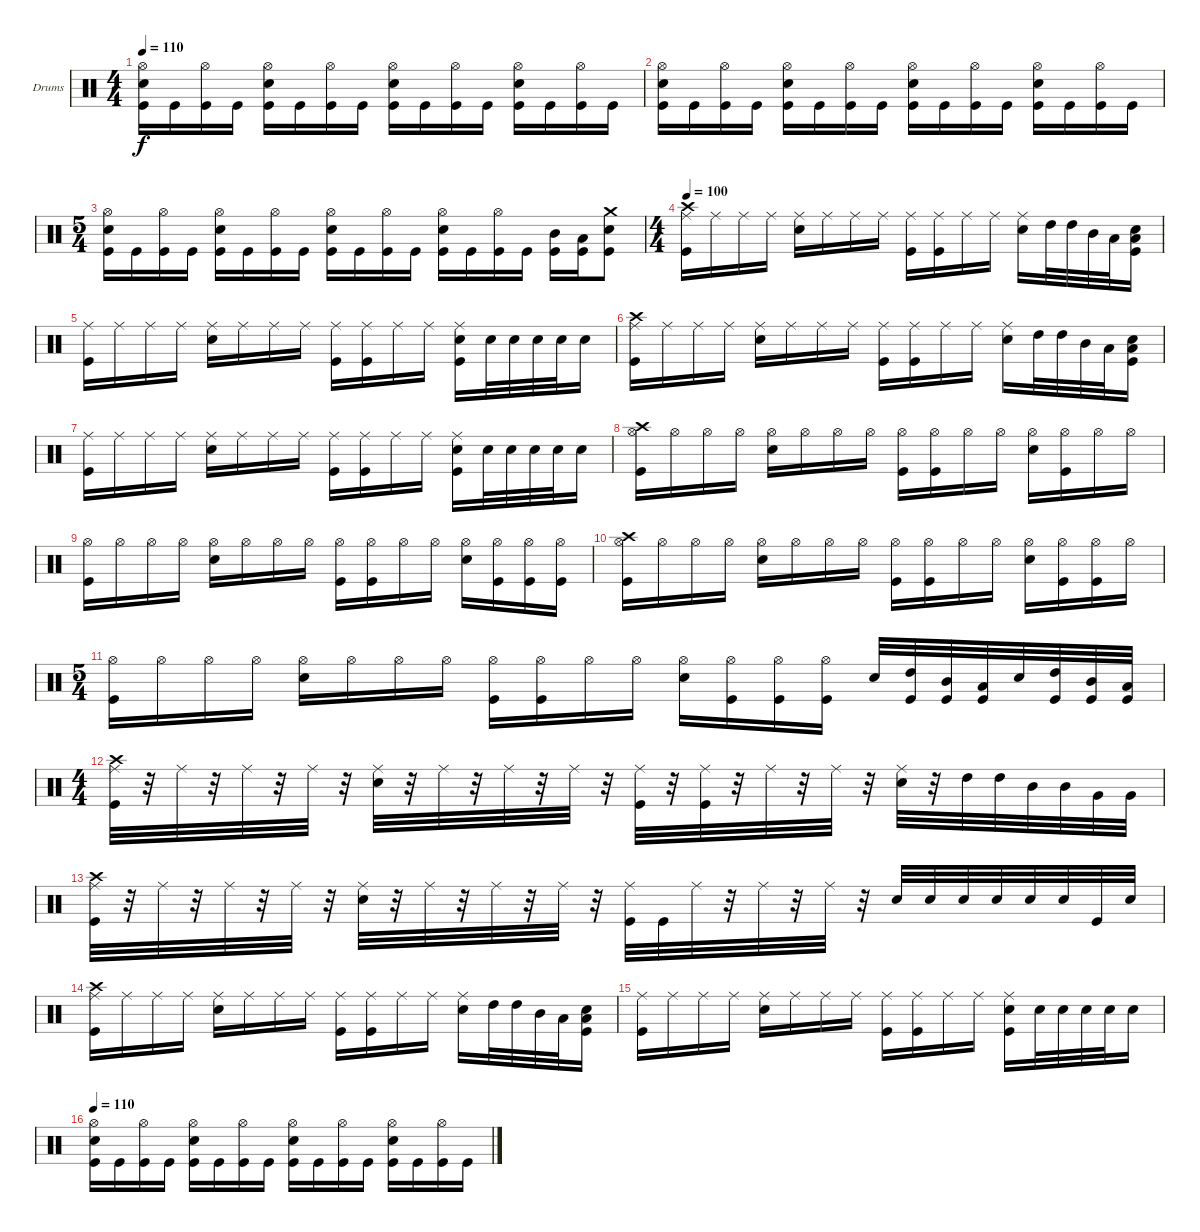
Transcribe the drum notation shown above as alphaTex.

\bracketExtendMode groupsimilarinstruments
\firstSystemTrackNameOrientation horizontal
\otherSystemsTrackNameOrientation horizontal
\track ("Drumkit" "Drums") {instrument percussion}
\staff {score}
\articulation defaults
\ts (4 4)
\tempo 110
\clef neutral
\ks c
("Hi-Hat (open)" "Snare (hit) 2" "Kick (hit)").16{dy f} "Kick (hit)".16 ("Hi-Hat (open)" "Kick (hit)").16 "Kick (hit)".16 ("Hi-Hat (open)" "Snare (hit) 2" "Kick (hit)").16 "Kick (hit)".16 ("Hi-Hat (open)" "Kick (hit)").16 "Kick (hit)".16 ("Hi-Hat (open)" "Snare (hit) 2" "Kick (hit)").16 "Kick (hit)".16 ("Hi-Hat (open)" "Kick (hit)").16 "Kick (hit)".16 ("Hi-Hat (open)" "Snare (hit) 2" "Kick (hit)").16 "Kick (hit)".16 ("Hi-Hat (open)" "Kick (hit)").16 "Kick (hit)".16 |
("Hi-Hat (open)" "Snare (hit) 2" "Kick (hit)").16 "Kick (hit)".16 ("Hi-Hat (open)" "Kick (hit)").16 "Kick (hit)".16 ("Hi-Hat (open)" "Snare (hit) 2" "Kick (hit)").16 "Kick (hit)".16 ("Hi-Hat (open)" "Kick (hit)").16 "Kick (hit)".16 ("Hi-Hat (open)" "Snare (hit) 2" "Kick (hit)").16 "Kick (hit)".16 ("Hi-Hat (open)" "Kick (hit)").16 "Kick (hit)".16 ("Hi-Hat (open)" "Snare (hit) 2" "Kick (hit)").16 "Kick (hit)".16 ("Hi-Hat (open)" "Kick (hit)").16 "Kick (hit)".16 |
\ts (5 4)
("Hi-Hat (open)" "Snare (hit) 2" "Kick (hit)").16 "Kick (hit)".16 ("Hi-Hat (open)" "Kick (hit)").16 "Kick (hit)".16 ("Hi-Hat (open)" "Snare (hit) 2" "Kick (hit)").16 "Kick (hit)".16 ("Hi-Hat (open)" "Kick (hit)").16 "Kick (hit)".16 ("Hi-Hat (open)" "Snare (hit) 2" "Kick (hit)").16 "Kick (hit)".16 ("Hi-Hat (open)" "Kick (hit)").16 "Kick (hit)".16 ("Hi-Hat (open)" "Snare (hit) 2" "Kick (hit)").16 "Kick (hit)".16 ("Hi-Hat (open)" "Kick (hit)").16 "Kick (hit)".16 ("Mid Tom (hit)" "Kick (hit)").16 ("Low Tom (hit)" "Kick (hit)").16 ("Crash medium (hit)" "Snare (hit) 2" "Kick (hit)").8 |
\ts (4 4)
\tempo 100
("Crash high (hit)" "Ride (middle)" "Kick (hit)").16 "Ride (middle)".16 "Ride (middle)".16 "Ride (middle)".16 ("Ride (middle)" "Snare (hit) 2").16 "Ride (middle)".16 "Ride (middle)".16 "Ride (middle)".16 ("Ride (middle)" "Kick (hit)").16 ("Ride (middle)" "Kick (hit)").16 "Ride (middle)".16 "Ride (middle)".16 ("Ride (middle)" "Snare (hit) 2").16 "High Tom (hit)".32 "High Tom (hit)".32 "Mid Tom (hit)".32 "Low Tom (hit)".32 ("Low Tom (hit)" "Snare (hit) 2" "Kick (hit)").16 |
("Ride (middle)" "Kick (hit)").16 "Ride (middle)".16 "Ride (middle)".16 "Ride (middle)".16 ("Ride (middle)" "Snare (hit) 2").16 "Ride (middle)".16 "Ride (middle)".16 "Ride (middle)".16 ("Ride (middle)" "Kick (hit)").16 ("Ride (middle)" "Kick (hit)").16 "Ride (middle)".16 "Ride (middle)".16 ("Ride (middle)" "Snare (hit) 2" "Kick (hit)").16 "Snare (hit) 2".32 "Snare (hit) 2".32 "Snare (hit) 2".32 "Snare (hit) 2".32 "Snare (hit) 2".16 |
("Crash high (hit)" "Ride (middle)" "Kick (hit)").16 "Ride (middle)".16 "Ride (middle)".16 "Ride (middle)".16 ("Ride (middle)" "Snare (hit) 2").16 "Ride (middle)".16 "Ride (middle)".16 "Ride (middle)".16 ("Ride (middle)" "Kick (hit)").16 ("Ride (middle)" "Kick (hit)").16 "Ride (middle)".16 "Ride (middle)".16 ("Ride (middle)" "Snare (hit) 2").16 "High Tom (hit)".32 "High Tom (hit)".32 "Mid Tom (hit)".32 "Low Tom (hit)".32 ("Low Tom (hit)" "Snare (hit) 2" "Kick (hit)").16 |
("Ride (middle)" "Kick (hit)").16 "Ride (middle)".16 "Ride (middle)".16 "Ride (middle)".16 ("Ride (middle)" "Snare (hit) 2").16 "Ride (middle)".16 "Ride (middle)".16 "Ride (middle)".16 ("Ride (middle)" "Kick (hit)").16 ("Ride (middle)" "Kick (hit)").16 "Ride (middle)".16 "Ride (middle)".16 ("Ride (middle)" "Snare (hit) 2" "Kick (hit)").16 "Snare (hit) 2".32 "Snare (hit) 2".32 "Snare (hit) 2".32 "Snare (hit) 2".32 "Snare (hit) 2".16 |
("Crash high (hit)" "Hi-Hat (open)" "Kick (hit)").16 "Hi-Hat (open)".16 "Hi-Hat (open)".16 "Hi-Hat (open)".16 ("Hi-Hat (open)" "Snare (hit) 2").16 "Hi-Hat (open)".16 "Hi-Hat (open)".16 "Hi-Hat (open)".16 ("Hi-Hat (open)" "Kick (hit)").16 ("Hi-Hat (open)" "Kick (hit)").16 "Hi-Hat (open)".16 "Hi-Hat (open)".16 ("Hi-Hat (open)" "Snare (hit) 2").16 ("Hi-Hat (open)" "Kick (hit)").16 "Hi-Hat (open)".16 "Hi-Hat (open)".16 |
("Hi-Hat (open)" "Kick (hit)").16 "Hi-Hat (open)".16 "Hi-Hat (open)".16 "Hi-Hat (open)".16 ("Hi-Hat (open)" "Snare (hit) 2").16 "Hi-Hat (open)".16 "Hi-Hat (open)".16 "Hi-Hat (open)".16 ("Hi-Hat (open)" "Kick (hit)").16 ("Hi-Hat (open)" "Kick (hit)").16 "Hi-Hat (open)".16 "Hi-Hat (open)".16 ("Hi-Hat (open)" "Snare (hit) 2").16 ("Hi-Hat (open)" "Kick (hit)").16 ("Hi-Hat (open)" "Kick (hit)").16 ("Hi-Hat (open)" "Kick (hit)").16 |
("Crash high (hit)" "Hi-Hat (open)" "Kick (hit)").16 "Hi-Hat (open)".16 "Hi-Hat (open)".16 "Hi-Hat (open)".16 ("Hi-Hat (open)" "Snare (hit) 2").16 "Hi-Hat (open)".16 "Hi-Hat (open)".16 "Hi-Hat (open)".16 ("Hi-Hat (open)" "Kick (hit)").16 ("Hi-Hat (open)" "Kick (hit)").16 "Hi-Hat (open)".16 "Hi-Hat (open)".16 ("Hi-Hat (open)" "Snare (hit) 2").16 ("Hi-Hat (open)" "Kick (hit)").16 ("Hi-Hat (open)" "Kick (hit)").16 "Hi-Hat (open)".16 |
\ts (5 4)
("Hi-Hat (open)" "Kick (hit)").16 "Hi-Hat (open)".16 "Hi-Hat (open)".16 "Hi-Hat (open)".16 ("Hi-Hat (open)" "Snare (hit) 2").16 "Hi-Hat (open)".16 "Hi-Hat (open)".16 "Hi-Hat (open)".16 ("Hi-Hat (open)" "Kick (hit)").16 ("Hi-Hat (open)" "Kick (hit)").16 "Hi-Hat (open)".16 "Hi-Hat (open)".16 ("Hi-Hat (open)" "Snare (hit) 2").16 ("Hi-Hat (open)" "Kick (hit)").16 ("Hi-Hat (open)" "Kick (hit)").16 ("Hi-Hat (open)" "Kick (hit)").16 "Snare (hit) 2".32 ("High Tom (hit)" "Kick (hit)").32 ("Mid Tom (hit)" "Kick (hit)").32 ("Low Tom (hit)" "Kick (hit)").32 "Snare (hit) 2".32 ("High Tom (hit)" "Kick (hit)").32 ("Mid Tom (hit)" "Kick (hit)").32 ("Low Tom (hit)" "Kick (hit)").32 |
\ts (4 4)
("Crash high (hit)" "Ride (middle)" "Kick (hit)").32 r.32 "Ride (middle)".32 r.32 "Ride (middle)".32 r.32 "Ride (middle)".32 r.32 ("Ride (middle)" "Snare (hit) 2").32 r.32 "Ride (middle)".32 r.32 "Ride (middle)".32 r.32 "Ride (middle)".32 r.32 ("Ride (middle)" "Kick (hit)").32 r.32 ("Ride (middle)" "Kick (hit)").32 r.32 "Ride (middle)".32 r.32 "Ride (middle)".32 r.32 ("Ride (middle)" "Snare (hit) 2").32 r.32 "High Tom (hit)".32 "High Tom (hit)".32 "Mid Tom (hit)".32 "Mid Tom (hit)".32 "Very Low Tom (hit)".32 "Very Low Tom (hit)".32 |
("Crash high (hit)" "Ride (middle)" "Kick (hit)").32 r.32 "Ride (middle)".32 r.32 "Ride (middle)".32 r.32 "Ride (middle)".32 r.32 ("Ride (middle)" "Snare (hit) 2").32 r.32 "Ride (middle)".32 r.32 "Ride (middle)".32 r.32 "Ride (middle)".32 r.32 ("Ride (middle)" "Kick (hit)").32 "Kick (hit)".32 "Ride (middle)".32 r.32 "Ride (middle)".32 r.32 "Ride (middle)".32 r.32 "Snare (hit) 2".32 "Snare (hit) 2".32 "Snare (hit) 2".32 "Snare (hit) 2".32 "Snare (hit) 2".32 "Snare (hit) 2".32 "Kick (hit)".32 "Snare (hit) 2".32 |
("Crash high (hit)" "Ride (middle)" "Kick (hit)").16 "Ride (middle)".16 "Ride (middle)".16 "Ride (middle)".16 ("Ride (middle)" "Snare (hit) 2").16 "Ride (middle)".16 "Ride (middle)".16 "Ride (middle)".16 ("Ride (middle)" "Kick (hit)").16 ("Ride (middle)" "Kick (hit)").16 "Ride (middle)".16 "Ride (middle)".16 ("Ride (middle)" "Snare (hit) 2").16 "High Tom (hit)".32 "High Tom (hit)".32 "Mid Tom (hit)".32 "Low Tom (hit)".32 ("Low Tom (hit)" "Snare (hit) 2" "Kick (hit)").16 |
("Ride (middle)" "Kick (hit)").16 "Ride (middle)".16 "Ride (middle)".16 "Ride (middle)".16 ("Ride (middle)" "Snare (hit) 2").16 "Ride (middle)".16 "Ride (middle)".16 "Ride (middle)".16 ("Ride (middle)" "Kick (hit)").16 ("Ride (middle)" "Kick (hit)").16 "Ride (middle)".16 "Ride (middle)".16 ("Ride (middle)" "Snare (hit) 2" "Kick (hit)").16 "Snare (hit) 2".32 "Snare (hit) 2".32 "Snare (hit) 2".32 "Snare (hit) 2".32 "Snare (hit) 2".16 |
\tempo 110
("Hi-Hat (open)" "Snare (hit) 2" "Kick (hit)").16 "Kick (hit)".16 ("Hi-Hat (open)" "Kick (hit)").16 "Kick (hit)".16 ("Hi-Hat (open)" "Snare (hit) 2" "Kick (hit)").16 "Kick (hit)".16 ("Hi-Hat (open)" "Kick (hit)").16 "Kick (hit)".16 ("Hi-Hat (open)" "Snare (hit) 2" "Kick (hit)").16 "Kick (hit)".16 ("Hi-Hat (open)" "Kick (hit)").16 "Kick (hit)".16 ("Hi-Hat (open)" "Snare (hit) 2" "Kick (hit)").16 "Kick (hit)".16 ("Hi-Hat (open)" "Kick (hit)").16 "Kick (hit)".16
